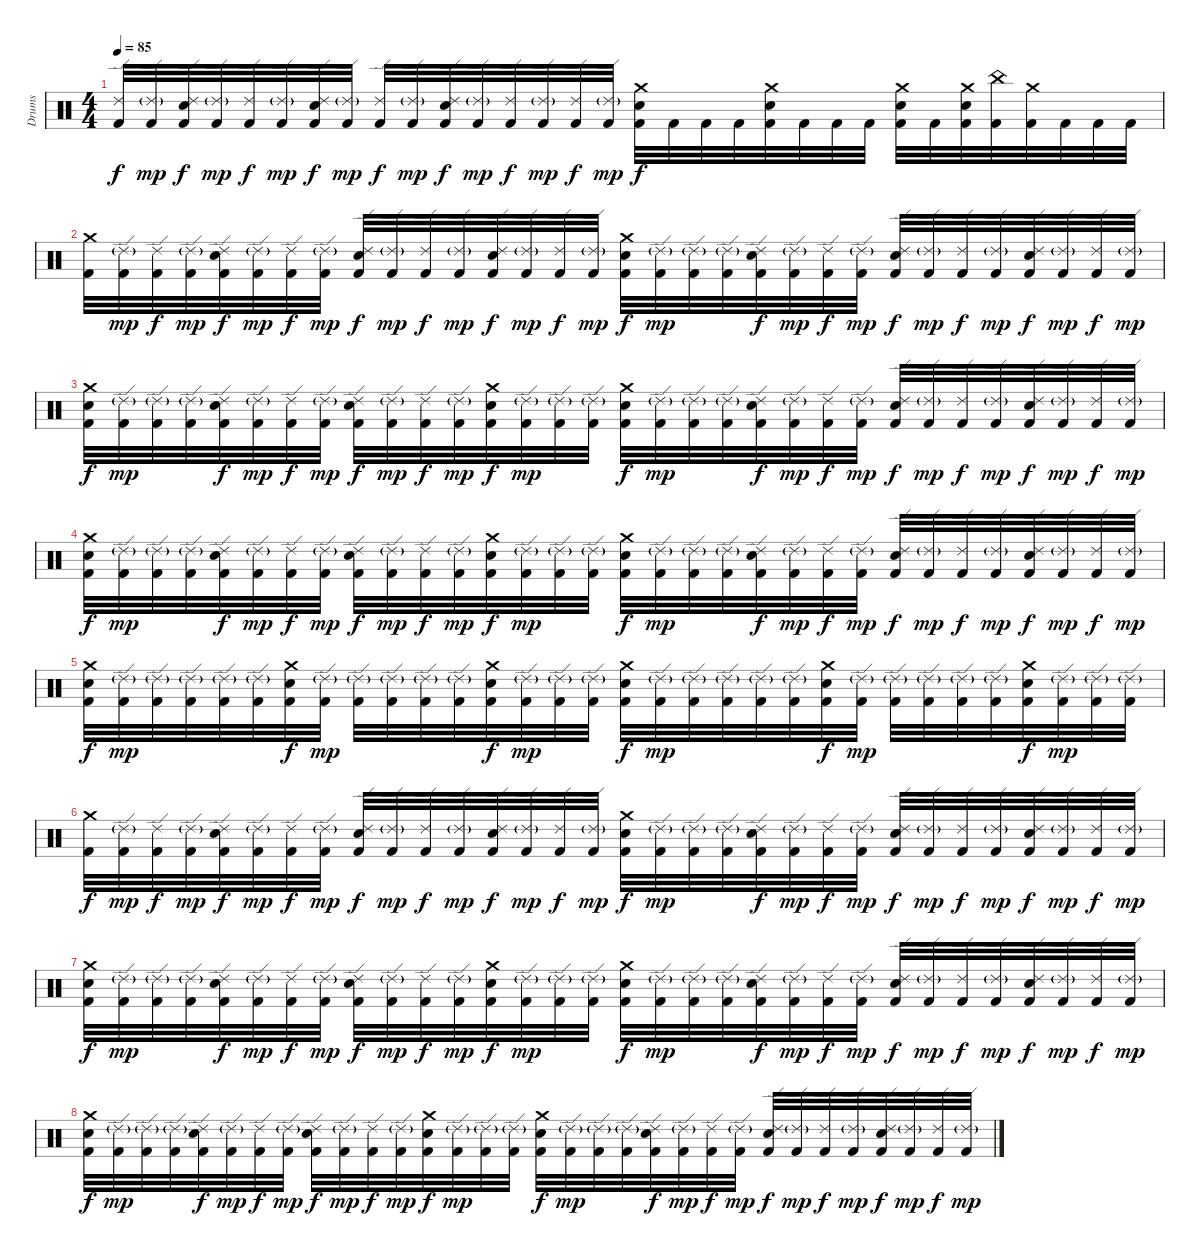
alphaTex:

\track ("Drums" "Drums") {instrument percussion}
\staff {score}
\articulation defaults
\ts (4 4)
\tempo 85
\clef neutral
\ks c
("Ride (edge) 2" "Kick (hit) 2").32{dy f} ("Ride (edge) 2"{g} "Kick (hit) 2").32{dy mp} ("Snare (hit) 2" "Ride (edge) 2" "Kick (hit) 2").32{dy f} ("Ride (edge) 2"{g} "Kick (hit) 2").32{dy mp} ("Ride (edge) 2" "Kick (hit) 2").32{dy f} ("Ride (edge) 2"{g} "Kick (hit) 2").32{dy mp} ("Snare (hit) 2" "Ride (edge) 2" "Kick (hit) 2").32{dy f} ("Ride (edge) 2"{g} "Kick (hit) 2").32{dy mp} ("Ride (edge) 2" "Kick (hit) 2").32{dy f} ("Ride (edge) 2"{g} "Kick (hit) 2").32{dy mp} ("Snare (hit) 2" "Ride (edge) 2" "Kick (hit) 2").32{dy f} ("Ride (edge) 2"{g} "Kick (hit) 2").32{dy mp} ("Ride (edge) 2" "Kick (hit) 2").32{dy f} ("Ride (edge) 2"{g} "Kick (hit) 2").32{dy mp} ("Ride (edge) 2" "Kick (hit) 2").32{dy f} ("Ride (edge) 2"{g} "Kick (hit) 2").32{dy mp} ("Snare (hit) 2" "Crash medium (hit)" "Kick (hit) 2").32{dy f} "Kick (hit) 2".32 "Kick (hit) 2".32 "Kick (hit) 2".32 ("Snare (hit) 2" "Crash medium (hit)" "Kick (hit) 2").32 "Kick (hit) 2".32 "Kick (hit) 2".32 "Kick (hit) 2".32 ("Snare (hit) 2" "Crash medium (hit)" "Kick (hit) 2").32 "Kick (hit) 2".32 ("Snare (hit) 2" "Crash medium (hit)" "Kick (hit) 2").32 ("China (hit)" "Kick (hit) 2").32 ("Crash medium (hit)" "Kick (hit) 2").32 "Kick (hit) 2".32 "Kick (hit) 2".32 "Kick (hit) 2".32 |
("Crash medium (hit)" "Kick (hit) 2").32 ("Ride (edge) 2"{g} "Kick (hit) 2").32{dy mp} ("Ride (edge) 2" "Kick (hit) 2").32{dy f} ("Ride (edge) 2"{g} "Kick (hit) 2").32{dy mp} ("Snare (hit) 2" "Ride (edge) 2" "Kick (hit) 2").32{dy f} ("Ride (edge) 2"{g} "Kick (hit) 2").32{dy mp} ("Ride (edge) 2" "Kick (hit) 2").32{dy f} ("Ride (edge) 2"{g} "Kick (hit) 2").32{dy mp} ("Snare (hit) 2" "Ride (edge) 2" "Kick (hit) 2").32{dy f} ("Ride (edge) 2"{g} "Kick (hit) 2").32{dy mp} ("Ride (edge) 2" "Kick (hit) 2").32{dy f} ("Ride (edge) 2"{g} "Kick (hit) 2").32{dy mp} ("Snare (hit) 2" "Ride (edge) 2" "Kick (hit) 2").32{dy f} ("Ride (edge) 2"{g} "Kick (hit) 2").32{dy mp} ("Ride (edge) 2" "Kick (hit) 2").32{dy f} ("Ride (edge) 2"{g} "Kick (hit) 2").32{dy mp} ("Snare (hit) 2" "Crash medium (hit)" "Kick (hit) 2").32{dy f} ("Ride (edge) 2"{g} "Kick (hit) 2").32{dy mp} ("Ride (edge) 2"{g} "Kick (hit) 2").32 ("Ride (edge) 2"{g} "Kick (hit) 2").32 ("Snare (hit) 2" "Ride (edge) 2" "Kick (hit) 2").32{dy f} ("Ride (edge) 2"{g} "Kick (hit) 2").32{dy mp} ("Ride (edge) 2" "Kick (hit) 2").32{dy f} ("Ride (edge) 2"{g} "Kick (hit) 2").32{dy mp} ("Snare (hit) 2" "Ride (edge) 2" "Kick (hit) 2").32{dy f} ("Ride (edge) 2"{g} "Kick (hit) 2").32{dy mp} ("Ride (edge) 2" "Kick (hit) 2").32{dy f} ("Ride (edge) 2"{g} "Kick (hit) 2").32{dy mp} ("Snare (hit) 2" "Ride (edge) 2" "Kick (hit) 2").32{dy f} ("Ride (edge) 2"{g} "Kick (hit) 2").32{dy mp} ("Ride (edge) 2" "Kick (hit) 2").32{dy f} ("Ride (edge) 2"{g} "Kick (hit) 2").32{dy mp} |
("Snare (hit) 2" "Crash medium (hit)" "Kick (hit) 2").32{dy f} ("Ride (edge) 2"{g} "Kick (hit) 2").32{dy mp} ("Ride (edge) 2"{g} "Kick (hit) 2").32 ("Ride (edge) 2"{g} "Kick (hit) 2").32 ("Snare (hit) 2" "Ride (edge) 2" "Kick (hit) 2").32{dy f} ("Ride (edge) 2"{g} "Kick (hit) 2").32{dy mp} ("Ride (edge) 2" "Kick (hit) 2").32{dy f} ("Ride (edge) 2"{g} "Kick (hit) 2").32{dy mp} ("Snare (hit) 2" "Ride (edge) 2" "Kick (hit) 2").32{dy f} ("Ride (edge) 2"{g} "Kick (hit) 2").32{dy mp} ("Ride (edge) 2" "Kick (hit) 2").32{dy f} ("Ride (edge) 2"{g} "Kick (hit) 2").32{dy mp} ("Snare (hit) 2" "Crash medium (hit)" "Kick (hit) 2").32{dy f} ("Ride (edge) 2"{g} "Kick (hit) 2").32{dy mp} ("Ride (edge) 2"{g} "Kick (hit) 2").32 ("Ride (edge) 2"{g} "Kick (hit) 2").32 ("Snare (hit) 2" "Crash medium (hit)" "Kick (hit) 2").32{dy f} ("Ride (edge) 2"{g} "Kick (hit) 2").32{dy mp} ("Ride (edge) 2"{g} "Kick (hit) 2").32 ("Ride (edge) 2"{g} "Kick (hit) 2").32 ("Snare (hit) 2" "Ride (edge) 2" "Kick (hit) 2").32{dy f} ("Ride (edge) 2"{g} "Kick (hit) 2").32{dy mp} ("Ride (edge) 2" "Kick (hit) 2").32{dy f} ("Ride (edge) 2"{g} "Kick (hit) 2").32{dy mp} ("Snare (hit) 2" "Ride (edge) 2" "Kick (hit) 2").32{dy f} ("Ride (edge) 2"{g} "Kick (hit) 2").32{dy mp} ("Ride (edge) 2" "Kick (hit) 2").32{dy f} ("Ride (edge) 2"{g} "Kick (hit) 2").32{dy mp} ("Snare (hit) 2" "Ride (edge) 2" "Kick (hit) 2").32{dy f} ("Ride (edge) 2"{g} "Kick (hit) 2").32{dy mp} ("Ride (edge) 2" "Kick (hit) 2").32{dy f} ("Ride (edge) 2"{g} "Kick (hit) 2").32{dy mp} |
("Snare (hit) 2" "Crash medium (hit)" "Kick (hit) 2").32{dy f} ("Ride (edge) 2"{g} "Kick (hit) 2").32{dy mp} ("Ride (edge) 2"{g} "Kick (hit) 2").32 ("Ride (edge) 2"{g} "Kick (hit) 2").32 ("Snare (hit) 2" "Ride (edge) 2" "Kick (hit) 2").32{dy f} ("Ride (edge) 2"{g} "Kick (hit) 2").32{dy mp} ("Ride (edge) 2" "Kick (hit) 2").32{dy f} ("Ride (edge) 2"{g} "Kick (hit) 2").32{dy mp} ("Snare (hit) 2" "Ride (edge) 2" "Kick (hit) 2").32{dy f} ("Ride (edge) 2"{g} "Kick (hit) 2").32{dy mp} ("Ride (edge) 2" "Kick (hit) 2").32{dy f} ("Ride (edge) 2"{g} "Kick (hit) 2").32{dy mp} ("Snare (hit) 2" "Crash medium (hit)" "Kick (hit) 2").32{dy f} ("Ride (edge) 2"{g} "Kick (hit) 2").32{dy mp} ("Ride (edge) 2"{g} "Kick (hit) 2").32 ("Ride (edge) 2"{g} "Kick (hit) 2").32 ("Snare (hit) 2" "Crash medium (hit)" "Kick (hit) 2").32{dy f} ("Ride (edge) 2"{g} "Kick (hit) 2").32{dy mp} ("Ride (edge) 2"{g} "Kick (hit) 2").32 ("Ride (edge) 2"{g} "Kick (hit) 2").32 ("Snare (hit) 2" "Ride (edge) 2" "Kick (hit) 2").32{dy f} ("Ride (edge) 2"{g} "Kick (hit) 2").32{dy mp} ("Ride (edge) 2" "Kick (hit) 2").32{dy f} ("Ride (edge) 2"{g} "Kick (hit) 2").32{dy mp} ("Snare (hit) 2" "Ride (edge) 2" "Kick (hit) 2").32{dy f} ("Ride (edge) 2"{g} "Kick (hit) 2").32{dy mp} ("Ride (edge) 2" "Kick (hit) 2").32{dy f} ("Ride (edge) 2"{g} "Kick (hit) 2").32{dy mp} ("Snare (hit) 2" "Ride (edge) 2" "Kick (hit) 2").32{dy f} ("Ride (edge) 2"{g} "Kick (hit) 2").32{dy mp} ("Ride (edge) 2" "Kick (hit) 2").32{dy f} ("Ride (edge) 2"{g} "Kick (hit) 2").32{dy mp} |
("Snare (hit) 2" "Crash medium (hit)" "Kick (hit) 2").32{dy f} ("Ride (edge) 2"{g} "Kick (hit) 2").32{dy mp} ("Ride (edge) 2"{g} "Kick (hit) 2").32 ("Ride (edge) 2"{g} "Kick (hit) 2").32 ("Ride (edge) 2"{g} "Kick (hit) 2").32 ("Ride (edge) 2"{g} "Kick (hit) 2").32 ("Snare (hit) 2" "Crash medium (hit)" "Kick (hit) 2").32{dy f} ("Ride (edge) 2"{g} "Kick (hit) 2").32{dy mp} ("Ride (edge) 2"{g} "Kick (hit) 2").32 ("Ride (edge) 2"{g} "Kick (hit) 2").32 ("Ride (edge) 2"{g} "Kick (hit) 2").32 ("Ride (edge) 2"{g} "Kick (hit) 2").32 ("Snare (hit) 2" "Crash medium (hit)" "Kick (hit) 2").32{dy f} ("Ride (edge) 2"{g} "Kick (hit) 2").32{dy mp} ("Ride (edge) 2"{g} "Kick (hit) 2").32 ("Ride (edge) 2"{g} "Kick (hit) 2").32 ("Snare (hit) 2" "Crash medium (hit)" "Kick (hit) 2").32{dy f} ("Ride (edge) 2"{g} "Kick (hit) 2").32{dy mp} ("Ride (edge) 2"{g} "Kick (hit) 2").32 ("Ride (edge) 2"{g} "Kick (hit) 2").32 ("Ride (edge) 2"{g} "Kick (hit) 2").32 ("Ride (edge) 2"{g} "Kick (hit) 2").32 ("Snare (hit) 2" "Crash medium (hit)" "Kick (hit) 2").32{dy f} ("Ride (edge) 2"{g} "Kick (hit) 2").32{dy mp} ("Ride (edge) 2"{g} "Kick (hit) 2").32 ("Ride (edge) 2"{g} "Kick (hit) 2").32 ("Ride (edge) 2"{g} "Kick (hit) 2").32 ("Ride (edge) 2"{g} "Kick (hit) 2").32 ("Snare (hit) 2" "Crash medium (hit)" "Kick (hit) 2").32{dy f} ("Ride (edge) 2"{g} "Kick (hit) 2").32{dy mp} ("Ride (edge) 2"{g} "Kick (hit) 2").32 ("Ride (edge) 2"{g} "Kick (hit) 2").32 |
("Crash medium (hit)" "Kick (hit) 2").32{dy f} ("Ride (edge) 2"{g} "Kick (hit) 2").32{dy mp} ("Ride (edge) 2" "Kick (hit) 2").32{dy f} ("Ride (edge) 2"{g} "Kick (hit) 2").32{dy mp} ("Snare (hit) 2" "Ride (edge) 2" "Kick (hit) 2").32{dy f} ("Ride (edge) 2"{g} "Kick (hit) 2").32{dy mp} ("Ride (edge) 2" "Kick (hit) 2").32{dy f} ("Ride (edge) 2"{g} "Kick (hit) 2").32{dy mp} ("Snare (hit) 2" "Ride (edge) 2" "Kick (hit) 2").32{dy f} ("Ride (edge) 2"{g} "Kick (hit) 2").32{dy mp} ("Ride (edge) 2" "Kick (hit) 2").32{dy f} ("Ride (edge) 2"{g} "Kick (hit) 2").32{dy mp} ("Snare (hit) 2" "Ride (edge) 2" "Kick (hit) 2").32{dy f} ("Ride (edge) 2"{g} "Kick (hit) 2").32{dy mp} ("Ride (edge) 2" "Kick (hit) 2").32{dy f} ("Ride (edge) 2"{g} "Kick (hit) 2").32{dy mp} ("Snare (hit) 2" "Crash medium (hit)" "Kick (hit) 2").32{dy f} ("Ride (edge) 2"{g} "Kick (hit) 2").32{dy mp} ("Ride (edge) 2"{g} "Kick (hit) 2").32 ("Ride (edge) 2"{g} "Kick (hit) 2").32 ("Snare (hit) 2" "Ride (edge) 2" "Kick (hit) 2").32{dy f} ("Ride (edge) 2"{g} "Kick (hit) 2").32{dy mp} ("Ride (edge) 2" "Kick (hit) 2").32{dy f} ("Ride (edge) 2"{g} "Kick (hit) 2").32{dy mp} ("Snare (hit) 2" "Ride (edge) 2" "Kick (hit) 2").32{dy f} ("Ride (edge) 2"{g} "Kick (hit) 2").32{dy mp} ("Ride (edge) 2" "Kick (hit) 2").32{dy f} ("Ride (edge) 2"{g} "Kick (hit) 2").32{dy mp} ("Snare (hit) 2" "Ride (edge) 2" "Kick (hit) 2").32{dy f} ("Ride (edge) 2"{g} "Kick (hit) 2").32{dy mp} ("Ride (edge) 2" "Kick (hit) 2").32{dy f} ("Ride (edge) 2"{g} "Kick (hit) 2").32{dy mp} |
("Snare (hit) 2" "Crash medium (hit)" "Kick (hit) 2").32{dy f} ("Ride (edge) 2"{g} "Kick (hit) 2").32{dy mp} ("Ride (edge) 2"{g} "Kick (hit) 2").32 ("Ride (edge) 2"{g} "Kick (hit) 2").32 ("Snare (hit) 2" "Ride (edge) 2" "Kick (hit) 2").32{dy f} ("Ride (edge) 2"{g} "Kick (hit) 2").32{dy mp} ("Ride (edge) 2" "Kick (hit) 2").32{dy f} ("Ride (edge) 2"{g} "Kick (hit) 2").32{dy mp} ("Snare (hit) 2" "Ride (edge) 2" "Kick (hit) 2").32{dy f} ("Ride (edge) 2"{g} "Kick (hit) 2").32{dy mp} ("Ride (edge) 2" "Kick (hit) 2").32{dy f} ("Ride (edge) 2"{g} "Kick (hit) 2").32{dy mp} ("Snare (hit) 2" "Crash medium (hit)" "Kick (hit) 2").32{dy f} ("Ride (edge) 2"{g} "Kick (hit) 2").32{dy mp} ("Ride (edge) 2"{g} "Kick (hit) 2").32 ("Ride (edge) 2"{g} "Kick (hit) 2").32 ("Snare (hit) 2" "Crash medium (hit)" "Kick (hit) 2").32{dy f} ("Ride (edge) 2"{g} "Kick (hit) 2").32{dy mp} ("Ride (edge) 2"{g} "Kick (hit) 2").32 ("Ride (edge) 2"{g} "Kick (hit) 2").32 ("Snare (hit) 2" "Ride (edge) 2" "Kick (hit) 2").32{dy f} ("Ride (edge) 2"{g} "Kick (hit) 2").32{dy mp} ("Ride (edge) 2" "Kick (hit) 2").32{dy f} ("Ride (edge) 2"{g} "Kick (hit) 2").32{dy mp} ("Snare (hit) 2" "Ride (edge) 2" "Kick (hit) 2").32{dy f} ("Ride (edge) 2"{g} "Kick (hit) 2").32{dy mp} ("Ride (edge) 2" "Kick (hit) 2").32{dy f} ("Ride (edge) 2"{g} "Kick (hit) 2").32{dy mp} ("Snare (hit) 2" "Ride (edge) 2" "Kick (hit) 2").32{dy f} ("Ride (edge) 2"{g} "Kick (hit) 2").32{dy mp} ("Ride (edge) 2" "Kick (hit) 2").32{dy f} ("Ride (edge) 2"{g} "Kick (hit) 2").32{dy mp} |
("Snare (hit) 2" "Crash medium (hit)" "Kick (hit) 2").32{dy f} ("Ride (edge) 2"{g} "Kick (hit) 2").32{dy mp} ("Ride (edge) 2"{g} "Kick (hit) 2").32 ("Ride (edge) 2"{g} "Kick (hit) 2").32 ("Snare (hit) 2" "Ride (edge) 2" "Kick (hit) 2").32{dy f} ("Ride (edge) 2"{g} "Kick (hit) 2").32{dy mp} ("Ride (edge) 2" "Kick (hit) 2").32{dy f} ("Ride (edge) 2"{g} "Kick (hit) 2").32{dy mp} ("Snare (hit) 2" "Ride (edge) 2" "Kick (hit) 2").32{dy f} ("Ride (edge) 2"{g} "Kick (hit) 2").32{dy mp} ("Ride (edge) 2" "Kick (hit) 2").32{dy f} ("Ride (edge) 2"{g} "Kick (hit) 2").32{dy mp} ("Snare (hit) 2" "Crash medium (hit)" "Kick (hit) 2").32{dy f} ("Ride (edge) 2"{g} "Kick (hit) 2").32{dy mp} ("Ride (edge) 2"{g} "Kick (hit) 2").32 ("Ride (edge) 2"{g} "Kick (hit) 2").32 ("Snare (hit) 2" "Crash medium (hit)" "Kick (hit) 2").32{dy f} ("Ride (edge) 2"{g} "Kick (hit) 2").32{dy mp} ("Ride (edge) 2"{g} "Kick (hit) 2").32 ("Ride (edge) 2"{g} "Kick (hit) 2").32 ("Snare (hit) 2" "Ride (edge) 2" "Kick (hit) 2").32{dy f} ("Ride (edge) 2"{g} "Kick (hit) 2").32{dy mp} ("Ride (edge) 2" "Kick (hit) 2").32{dy f} ("Ride (edge) 2"{g} "Kick (hit) 2").32{dy mp} ("Snare (hit) 2" "Ride (edge) 2" "Kick (hit) 2").32{dy f} ("Ride (edge) 2"{g} "Kick (hit) 2").32{dy mp} ("Ride (edge) 2" "Kick (hit) 2").32{dy f} ("Ride (edge) 2"{g} "Kick (hit) 2").32{dy mp} ("Snare (hit) 2" "Ride (edge) 2" "Kick (hit) 2").32{dy f} ("Ride (edge) 2"{g} "Kick (hit) 2").32{dy mp} ("Ride (edge) 2" "Kick (hit) 2").32{dy f} ("Ride (edge) 2"{g} "Kick (hit) 2").32{dy mp}
